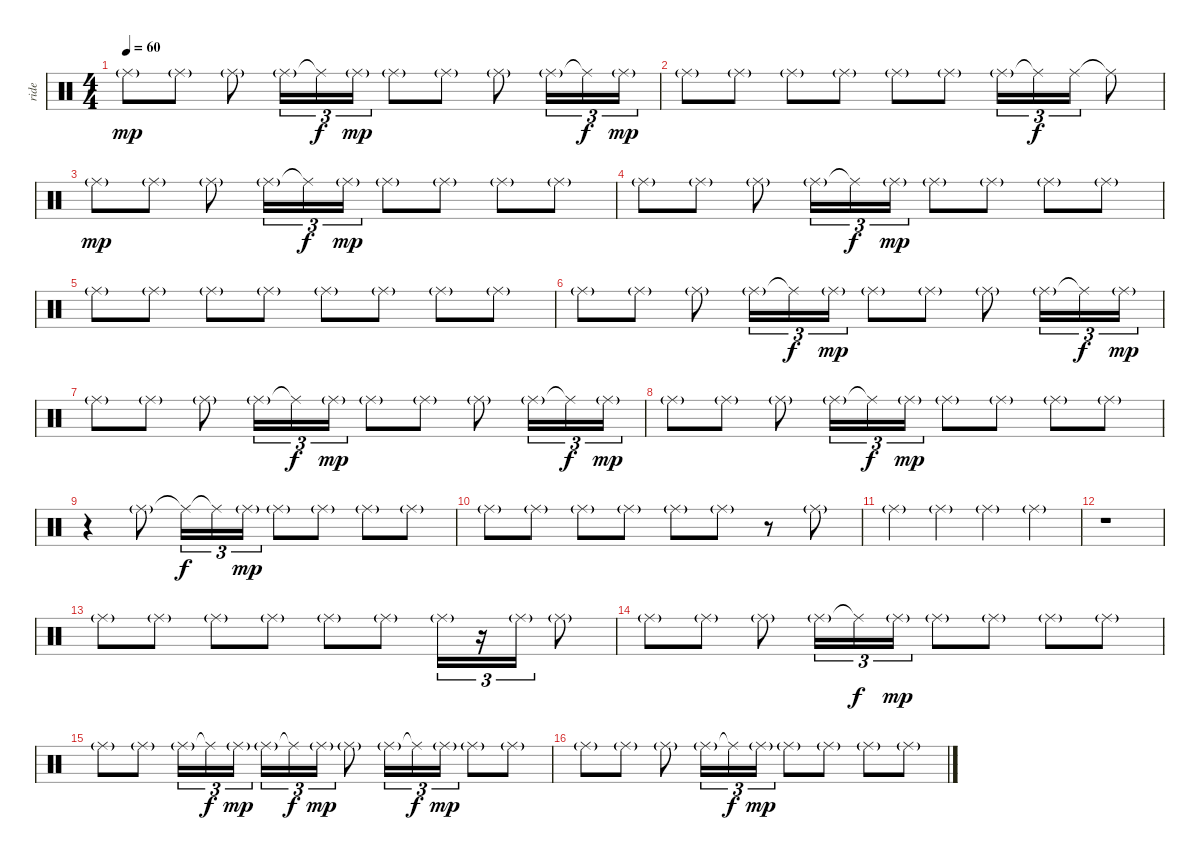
\track ("ride" "ride") {instrument percussion}
\staff {score}
\articulation defaults
\ts (4 4)
\tempo 60
\clef neutral
\ks c "Ride (middle)"{g}.8{dy mp} "Ride (middle)"{g}.8 "Ride (middle)"{g}.8 "Ride (middle)"{g}.16{tu (3 2)} "Ride (middle)"{t}.16{tu (3 2) dy f} "Ride (middle)"{g}.16{tu (3 2) dy mp} "Ride (middle)"{g}.8 "Ride (middle)"{g}.8 "Ride (middle)"{g}.8 "Ride (middle)"{g}.16{tu (3 2)} "Ride (middle)"{t}.16{tu (3 2) dy f} "Ride (middle)"{g}.16{tu (3 2) dy mp}
|
"Ride (middle)"{g}.8 "Ride (middle)"{g}.8 "Ride (middle)"{g}.8 "Ride (middle)"{g}.8 "Ride (middle)"{g}.8 "Ride (middle)"{g}.8 "Ride (middle)"{g}.16{tu (3 2)} "Ride (middle)"{t}.16{tu (3 2) dy f} "Ride (middle)".16{tu (3 2)} "Ride (middle)"{t}.8 |
"Ride (middle)"{g}.8{dy mp} "Ride (middle)"{g}.8 "Ride (middle)"{g}.8 "Ride (middle)"{g}.16{tu (3 2)} "Ride (middle)"{t}.16{tu (3 2) dy f} "Ride (middle)"{g}.16{tu (3 2) dy mp} "Ride (middle)"{g}.8 "Ride (middle)"{g}.8 "Ride (middle)"{g}.8 "Ride (middle)"{g}.8 |
"Ride (middle)"{g}.8 "Ride (middle)"{g}.8 "Ride (middle)"{g}.8 "Ride (middle)"{g}.16{tu (3 2)} "Ride (middle)"{t}.16{tu (3 2) dy f} "Ride (middle)"{g}.16{tu (3 2) dy mp} "Ride (middle)"{g}.8 "Ride (middle)"{g}.8 "Ride (middle)"{g}.8 "Ride (middle)"{g}.8 |
"Ride (middle)"{g}.8 "Ride (middle)"{g}.8 "Ride (middle)"{g}.8 "Ride (middle)"{g}.8 "Ride (middle)"{g}.8 "Ride (middle)"{g}.8 "Ride (middle)"{g}.8 "Ride (middle)"{g}.8 |
"Ride (middle)"{g}.8 "Ride (middle)"{g}.8 "Ride (middle)"{g}.8 "Ride (middle)"{g}.16{tu (3 2)} "Ride (middle)"{t}.16{tu (3 2) dy f} "Ride (middle)"{g}.16{tu (3 2) dy mp} "Ride (middle)"{g}.8 "Ride (middle)"{g}.8 "Ride (middle)"{g}.8 "Ride (middle)"{g}.16{tu (3 2)} "Ride (middle)"{t}.16{tu (3 2) dy f} "Ride (middle)"{g}.16{tu (3 2) dy mp} |
"Ride (middle)"{g}.8 "Ride (middle)"{g}.8 "Ride (middle)"{g}.8 "Ride (middle)"{g}.16{tu (3 2)} "Ride (middle)"{t}.16{tu (3 2) dy f} "Ride (middle)"{g}.16{tu (3 2) dy mp} "Ride (middle)"{g}.8 "Ride (middle)"{g}.8 "Ride (middle)"{g}.8 "Ride (middle)"{g}.16{tu (3 2)} "Ride (middle)"{t}.16{tu (3 2) dy f} "Ride (middle)"{g}.16{tu (3 2) dy mp} |
"Ride (middle)"{g}.8 "Ride (middle)"{g}.8 "Ride (middle)"{g}.8 "Ride (middle)"{g}.16{tu (3 2)} "Ride (middle)"{t}.16{tu (3 2) dy f} "Ride (middle)"{g}.16{tu (3 2) dy mp} "Ride (middle)"{g}.8 "Ride (middle)"{g}.8 "Ride (middle)"{g}.8 "Ride (middle)"{g}.8 |
r.4 "Ride (middle)"{g}.8 "Ride (middle)"{t}.16{tu (3 2) dy f} "Ride (middle)"{t}.16{tu (3 2)} "Ride (middle)"{g}.16{tu (3 2) dy mp} "Ride (middle)"{g}.8 "Ride (middle)"{g}.8 "Ride (middle)"{g}.8 "Ride (middle)"{g}.8 |
"Ride (middle)"{g}.8 "Ride (middle)"{g}.8 "Ride (middle)"{g}.8 "Ride (middle)"{g}.8 "Ride (middle)"{g}.8 "Ride (middle)"{g}.8 r.8 "Ride (middle)"{g}.8 |
"Ride (middle)"{g}.4 "Ride (middle)"{g}.4 "Ride (middle)"{g}.4 "Ride (middle)"{g}.4 |
r.1 |
"Ride (middle)"{g}.8 "Ride (middle)"{g}.8 "Ride (middle)"{g}.8 "Ride (middle)"{g}.8 "Ride (middle)"{g}.8 "Ride (middle)"{g}.8 "Ride (middle)"{g}.16{tu (3 2)} r.16{tu (3 2)} "Ride (middle)"{g}.16{tu (3 2)} "Ride (middle)"{g}.8 |
"Ride (middle)"{g}.8 "Ride (middle)"{g}.8 "Ride (middle)"{g}.8 "Ride (middle)"{g}.16{tu (3 2)} "Ride (middle)"{t}.16{tu (3 2) dy f} "Ride (middle)"{g}.16{tu (3 2) dy mp} "Ride (middle)"{g}.8 "Ride (middle)"{g}.8 "Ride (middle)"{g}.8 "Ride (middle)"{g}.8 |
"Ride (middle)"{g}.8 "Ride (middle)"{g}.8 "Ride (middle)"{g}.16{tu (3 2)} "Ride (middle)"{t}.16{tu (3 2) dy f} "Ride (middle)"{g}.16{tu (3 2) dy mp} "Ride (middle)"{g}.16{tu (3 2)} "Ride (middle)"{t}.16{tu (3 2) dy f} "Ride (middle)"{g}.16{tu (3 2) dy mp} "Ride (middle)"{g}.8 "Ride (middle)"{g}.16{tu (3 2)} "Ride (middle)"{t}.16{tu (3 2) dy f} "Ride (middle)"{g}.16{tu (3 2) dy mp} "Ride (middle)"{g}.8 "Ride (middle)"{g}.8 |
"Ride (middle)"{g}.8 "Ride (middle)"{g}.8 "Ride (middle)"{g}.8 "Ride (middle)"{g}.16{tu (3 2)} "Ride (middle)"{t}.16{tu (3 2) dy f} "Ride (middle)"{g}.16{tu (3 2) dy mp} "Ride (middle)"{g}.8 "Ride (middle)"{g}.8 "Ride (middle)"{g}.8 "Ride (middle)"{g}.8
